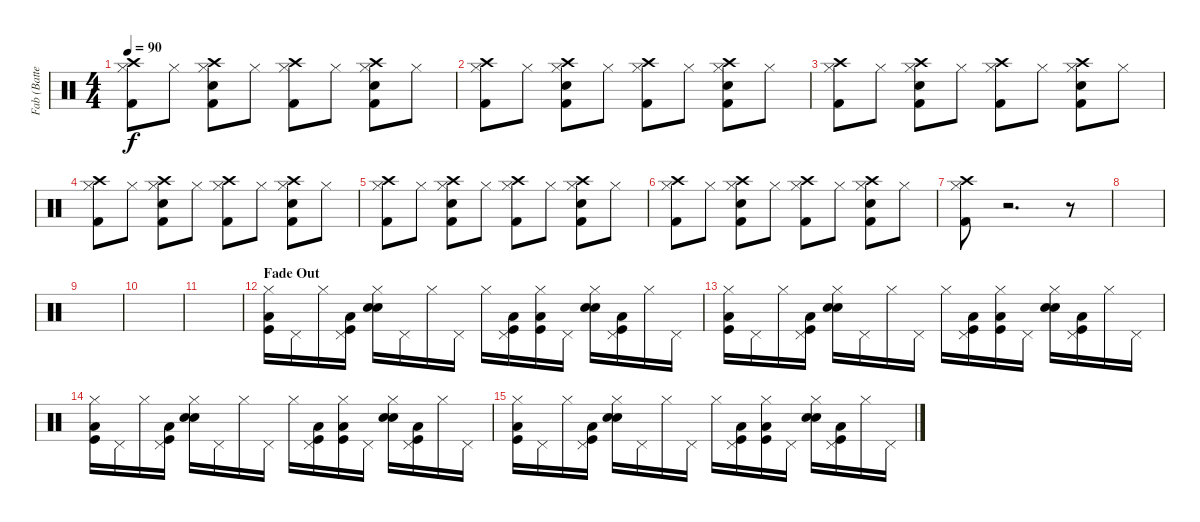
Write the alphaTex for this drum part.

\track ("Fab (Batterie)" "Fab (Batte") {instrument percussion}
\staff {score}
\articulation defaults
\ts (4 4)
\tempo 90
\clef neutral
\ks c
("Crash high (hit)" "Hi-Hat (closed)" "Kick (hit) 2").8{dy f} "Hi-Hat (closed)".8 ("Crash high (hit)" "Hi-Hat (closed)" "Snare (hit) 2" "Kick (hit) 2").8 "Hi-Hat (closed)".8 ("Crash high (hit)" "Hi-Hat (closed)" "Kick (hit) 2").8 "Hi-Hat (closed)".8 ("Crash high (hit)" "Hi-Hat (closed)" "Snare (hit) 2" "Kick (hit) 2").8 "Hi-Hat (closed)".8 |
("Crash high (hit)" "Hi-Hat (closed)" "Kick (hit) 2").8 "Hi-Hat (closed)".8 ("Crash high (hit)" "Hi-Hat (closed)" "Snare (hit) 2" "Kick (hit) 2").8 "Hi-Hat (closed)".8 ("Crash high (hit)" "Hi-Hat (closed)" "Kick (hit) 2").8 "Hi-Hat (closed)".8 ("Crash high (hit)" "Hi-Hat (closed)" "Snare (hit) 2" "Kick (hit) 2").8 "Hi-Hat (closed)".8 |
("Crash high (hit)" "Hi-Hat (closed)" "Kick (hit) 2").8 "Hi-Hat (closed)".8 ("Crash high (hit)" "Hi-Hat (closed)" "Snare (hit) 2" "Kick (hit) 2").8 "Hi-Hat (closed)".8 ("Crash high (hit)" "Hi-Hat (closed)" "Kick (hit) 2").8 "Hi-Hat (closed)".8 ("Crash high (hit)" "Hi-Hat (closed)" "Snare (hit) 2" "Kick (hit) 2").8 "Hi-Hat (closed)".8 |
("Crash high (hit)" "Hi-Hat (closed)" "Kick (hit) 2").8 "Hi-Hat (closed)".8 ("Crash high (hit)" "Hi-Hat (closed)" "Snare (hit) 2" "Kick (hit) 2").8 "Hi-Hat (closed)".8 ("Crash high (hit)" "Hi-Hat (closed)" "Kick (hit) 2").8 "Hi-Hat (closed)".8 ("Crash high (hit)" "Hi-Hat (closed)" "Snare (hit) 2" "Kick (hit) 2").8 "Hi-Hat (closed)".8 |
("Crash high (hit)" "Hi-Hat (closed)" "Kick (hit) 2").8 "Hi-Hat (closed)".8 ("Crash high (hit)" "Hi-Hat (closed)" "Snare (hit) 2" "Kick (hit) 2").8 "Hi-Hat (closed)".8 ("Crash high (hit)" "Hi-Hat (closed)" "Kick (hit) 2").8 "Hi-Hat (closed)".8 ("Crash high (hit)" "Hi-Hat (closed)" "Snare (hit) 2" "Kick (hit) 2").8 "Hi-Hat (closed)".8 |
("Crash high (hit)" "Hi-Hat (closed)" "Kick (hit) 2").8 "Hi-Hat (closed)".8 ("Crash high (hit)" "Hi-Hat (closed)" "Snare (hit) 2" "Kick (hit) 2").8 "Hi-Hat (closed)".8 ("Crash high (hit)" "Hi-Hat (closed)" "Kick (hit) 2").8 "Hi-Hat (closed)".8 ("Crash high (hit)" "Hi-Hat (closed)" "Snare (hit) 2" "Kick (hit) 2").8 "Hi-Hat (closed)".8 |
("Crash high (hit)" "Hi-Hat (closed)" "Kick (hit) 2").8 r.2{d} r.8 |
|
|
|
|
\section ("" "Fade Out")
("Hi-Hat (closed)" "Low Floor Tom (hit)" "Kick (hit)").16{volume 0} "Pedal Hi-Hat (hit)".16 "Hi-Hat (closed)".16 ("Pedal Hi-Hat (hit)" "Kick (hit)" "Low Floor Tom (hit)").16 ("Hi-Hat (closed)" "Electric Snare (hit)" "Snare (hit) 2").16 "Pedal Hi-Hat (hit)".16 "Hi-Hat (closed)".16 "Pedal Hi-Hat (hit)".16 "Hi-Hat (closed)".16 ("Pedal Hi-Hat (hit)" "Low Floor Tom (hit)" "Kick (hit)").16 ("Hi-Hat (closed)" "Low Floor Tom (hit)" "Kick (hit)").16 "Pedal Hi-Hat (hit)".16 ("Hi-Hat (closed)" "Electric Snare (hit)" "Snare (hit) 2").16 ("Pedal Hi-Hat (hit)" "Kick (hit)" "Low Floor Tom (hit)").16 "Hi-Hat (closed)".16 "Pedal Hi-Hat (hit)".16 |
("Hi-Hat (closed)" "Low Floor Tom (hit)" "Kick (hit)").16 "Pedal Hi-Hat (hit)".16 "Hi-Hat (closed)".16 ("Pedal Hi-Hat (hit)" "Kick (hit)" "Low Floor Tom (hit)").16 ("Hi-Hat (closed)" "Electric Snare (hit)" "Snare (hit) 2").16 "Pedal Hi-Hat (hit)".16 "Hi-Hat (closed)".16 "Pedal Hi-Hat (hit)".16 "Hi-Hat (closed)".16 ("Pedal Hi-Hat (hit)" "Low Floor Tom (hit)" "Kick (hit)").16 ("Hi-Hat (closed)" "Low Floor Tom (hit)" "Kick (hit)").16 "Pedal Hi-Hat (hit)".16 ("Hi-Hat (closed)" "Electric Snare (hit)" "Snare (hit) 2").16 ("Pedal Hi-Hat (hit)" "Kick (hit)" "Low Floor Tom (hit)").16 "Hi-Hat (closed)".16 "Pedal Hi-Hat (hit)".16 |
("Hi-Hat (closed)" "Low Floor Tom (hit)" "Kick (hit)").16 "Pedal Hi-Hat (hit)".16 "Hi-Hat (closed)".16 ("Pedal Hi-Hat (hit)" "Kick (hit)" "Low Floor Tom (hit)").16 ("Hi-Hat (closed)" "Electric Snare (hit)" "Snare (hit) 2").16 "Pedal Hi-Hat (hit)".16 "Hi-Hat (closed)".16 "Pedal Hi-Hat (hit)".16 "Hi-Hat (closed)".16 ("Pedal Hi-Hat (hit)" "Low Floor Tom (hit)" "Kick (hit)").16 ("Hi-Hat (closed)" "Low Floor Tom (hit)" "Kick (hit)").16 "Pedal Hi-Hat (hit)".16 ("Hi-Hat (closed)" "Electric Snare (hit)" "Snare (hit) 2").16 ("Pedal Hi-Hat (hit)" "Kick (hit)" "Low Floor Tom (hit)").16 "Hi-Hat (closed)".16 "Pedal Hi-Hat (hit)".16 |
("Hi-Hat (closed)" "Low Floor Tom (hit)" "Kick (hit)").16 "Pedal Hi-Hat (hit)".16 "Hi-Hat (closed)".16 ("Pedal Hi-Hat (hit)" "Kick (hit)" "Low Floor Tom (hit)").16 ("Hi-Hat (closed)" "Electric Snare (hit)" "Snare (hit) 2").16 "Pedal Hi-Hat (hit)".16 "Hi-Hat (closed)".16 "Pedal Hi-Hat (hit)".16 "Hi-Hat (closed)".16 ("Pedal Hi-Hat (hit)" "Low Floor Tom (hit)" "Kick (hit)").16 ("Hi-Hat (closed)" "Low Floor Tom (hit)" "Kick (hit)").16 "Pedal Hi-Hat (hit)".16 ("Hi-Hat (closed)" "Electric Snare (hit)" "Snare (hit) 2").16 ("Pedal Hi-Hat (hit)" "Kick (hit)" "Low Floor Tom (hit)").16 "Hi-Hat (closed)".16 "Pedal Hi-Hat (hit)".16
